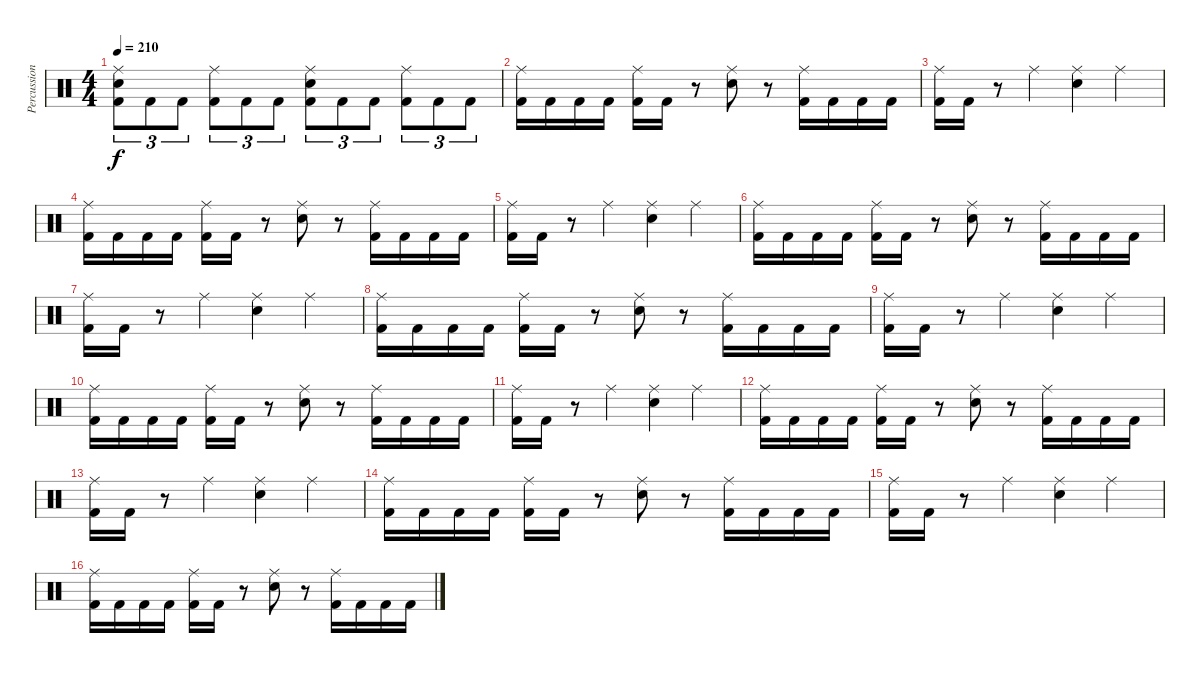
\track ("Percussions" "Percussion") {instrument percussion}
\staff {score}
\articulation defaults
\ts (4 4)
\tempo 210
\clef neutral
\ks c
("Kick (hit) 2" "Electric Snare (hit)" "Ride (middle)").8{tu (3 2) dy f} "Kick (hit) 2".8{tu (3 2)} "Kick (hit) 2".8{tu (3 2)} ("Kick (hit) 2" "Ride (middle)").8{tu (3 2)} "Kick (hit) 2".8{tu (3 2)} "Kick (hit) 2".8{tu (3 2)} ("Kick (hit) 2" "Electric Snare (hit)" "Ride (middle)").8{tu (3 2)} "Kick (hit) 2".8{tu (3 2)} "Kick (hit) 2".8{tu (3 2)} ("Kick (hit) 2" "Ride (middle)").8{tu (3 2)} "Kick (hit) 2".8{tu (3 2)} "Kick (hit) 2".8{tu (3 2)} |
("Kick (hit) 2" "Ride (middle)").16 "Kick (hit) 2".16 "Kick (hit) 2".16 "Kick (hit) 2".16 ("Kick (hit) 2" "Ride (middle)").16 "Kick (hit) 2".16 r.8 ("Electric Snare (hit)" "Ride (middle)").8 r.8 ("Kick (hit) 2" "Ride (middle)").16 "Kick (hit) 2".16 "Kick (hit) 2".16 "Kick (hit) 2".16 |
("Kick (hit) 2" "Ride (middle)").16 "Kick (hit) 2".16 r.8 "Ride (middle)".4 ("Electric Snare (hit)" "Ride (middle)").4 "Ride (middle)".4 |
("Kick (hit) 2" "Ride (middle)").16 "Kick (hit) 2".16 "Kick (hit) 2".16 "Kick (hit) 2".16 ("Kick (hit) 2" "Ride (middle)").16 "Kick (hit) 2".16 r.8 ("Electric Snare (hit)" "Ride (middle)").8 r.8 ("Kick (hit) 2" "Ride (middle)").16 "Kick (hit) 2".16 "Kick (hit) 2".16 "Kick (hit) 2".16 |
("Kick (hit) 2" "Ride (middle)").16 "Kick (hit) 2".16 r.8 "Ride (middle)".4 ("Electric Snare (hit)" "Ride (middle)").4 "Ride (middle)".4 |
("Kick (hit) 2" "Ride (middle)").16 "Kick (hit) 2".16 "Kick (hit) 2".16 "Kick (hit) 2".16 ("Kick (hit) 2" "Ride (middle)").16 "Kick (hit) 2".16 r.8 ("Electric Snare (hit)" "Ride (middle)").8 r.8 ("Kick (hit) 2" "Ride (middle)").16 "Kick (hit) 2".16 "Kick (hit) 2".16 "Kick (hit) 2".16 |
("Kick (hit) 2" "Ride (middle)").16 "Kick (hit) 2".16 r.8 "Ride (middle)".4 ("Electric Snare (hit)" "Ride (middle)").4 "Ride (middle)".4 |
("Kick (hit) 2" "Ride (middle)").16 "Kick (hit) 2".16 "Kick (hit) 2".16 "Kick (hit) 2".16 ("Kick (hit) 2" "Ride (middle)").16 "Kick (hit) 2".16 r.8 ("Electric Snare (hit)" "Ride (middle)").8 r.8 ("Kick (hit) 2" "Ride (middle)").16 "Kick (hit) 2".16 "Kick (hit) 2".16 "Kick (hit) 2".16 |
("Kick (hit) 2" "Ride (middle)").16 "Kick (hit) 2".16 r.8 "Ride (middle)".4 ("Electric Snare (hit)" "Ride (middle)").4 "Ride (middle)".4 |
("Kick (hit) 2" "Ride (middle)").16 "Kick (hit) 2".16 "Kick (hit) 2".16 "Kick (hit) 2".16 ("Kick (hit) 2" "Ride (middle)").16 "Kick (hit) 2".16 r.8 ("Electric Snare (hit)" "Ride (middle)").8 r.8 ("Kick (hit) 2" "Ride (middle)").16 "Kick (hit) 2".16 "Kick (hit) 2".16 "Kick (hit) 2".16 |
("Kick (hit) 2" "Ride (middle)").16 "Kick (hit) 2".16 r.8 "Ride (middle)".4 ("Electric Snare (hit)" "Ride (middle)").4 "Ride (middle)".4 |
("Kick (hit) 2" "Ride (middle)").16 "Kick (hit) 2".16 "Kick (hit) 2".16 "Kick (hit) 2".16 ("Kick (hit) 2" "Ride (middle)").16 "Kick (hit) 2".16 r.8 ("Electric Snare (hit)" "Ride (middle)").8 r.8 ("Kick (hit) 2" "Ride (middle)").16 "Kick (hit) 2".16 "Kick (hit) 2".16 "Kick (hit) 2".16 |
("Kick (hit) 2" "Ride (middle)").16 "Kick (hit) 2".16 r.8 "Ride (middle)".4 ("Electric Snare (hit)" "Ride (middle)").4 "Ride (middle)".4 |
("Kick (hit) 2" "Ride (middle)").16 "Kick (hit) 2".16 "Kick (hit) 2".16 "Kick (hit) 2".16 ("Kick (hit) 2" "Ride (middle)").16 "Kick (hit) 2".16 r.8 ("Electric Snare (hit)" "Ride (middle)").8 r.8 ("Kick (hit) 2" "Ride (middle)").16 "Kick (hit) 2".16 "Kick (hit) 2".16 "Kick (hit) 2".16 |
("Kick (hit) 2" "Ride (middle)").16 "Kick (hit) 2".16 r.8 "Ride (middle)".4 ("Electric Snare (hit)" "Ride (middle)").4 "Ride (middle)".4 |
("Kick (hit) 2" "Ride (middle)").16 "Kick (hit) 2".16 "Kick (hit) 2".16 "Kick (hit) 2".16 ("Kick (hit) 2" "Ride (middle)").16 "Kick (hit) 2".16 r.8 ("Electric Snare (hit)" "Ride (middle)").8 r.8 ("Kick (hit) 2" "Ride (middle)").16 "Kick (hit) 2".16 "Kick (hit) 2".16 "Kick (hit) 2".16
